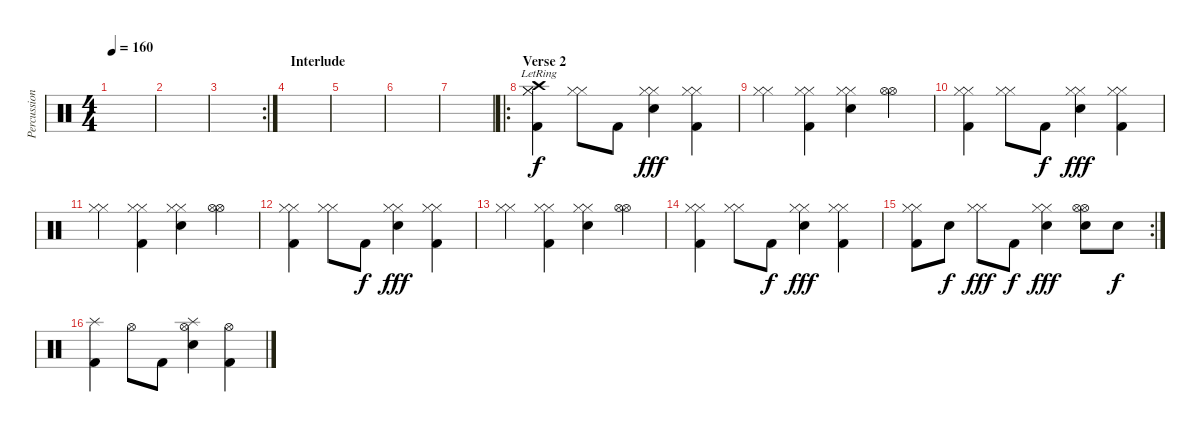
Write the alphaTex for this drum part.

\track ("Percussion" "Percussion") {instrument percussion}
\staff {score}
\articulation defaults
\ts (4 4)
\tempo 160
\clef neutral
\ks c
|
|
\rc 2
|
\section ("" "Interlude")
|
|
|
|
\ro
\section ("" "Verse 2")
("Hi-Hat (closed)" "Hi-Hat (closed)" "Crash high (hit)"{lr} "Kick (hit) 2").4 ("Hi-Hat (closed)" "Hi-Hat (closed)").8 "Kick (hit) 2".8{dy f} ("Hi-Hat (closed)" "Hi-Hat (closed)" "Electric Snare (hit)").4{dy fff} ("Hi-Hat (closed)" "Hi-Hat (closed)" "Kick (hit) 2").4 |
("Hi-Hat (closed)" "Hi-Hat (closed)").4 ("Hi-Hat (closed)" "Hi-Hat (closed)" "Kick (hit) 2").4 ("Hi-Hat (closed)" "Hi-Hat (closed)" "Electric Snare (hit)").4 ("Hi-Hat (open)" "Hi-Hat (open)").4 |
("Hi-Hat (closed)" "Hi-Hat (closed)" "Kick (hit) 2").4 ("Hi-Hat (closed)" "Hi-Hat (closed)").8 "Kick (hit) 2".8{dy f} ("Hi-Hat (closed)" "Hi-Hat (closed)" "Electric Snare (hit)").4{dy fff} ("Hi-Hat (closed)" "Hi-Hat (closed)" "Kick (hit) 2").4 |
("Hi-Hat (closed)" "Hi-Hat (closed)").4 ("Hi-Hat (closed)" "Hi-Hat (closed)" "Kick (hit) 2").4 ("Hi-Hat (closed)" "Hi-Hat (closed)" "Electric Snare (hit)").4 ("Hi-Hat (open)" "Hi-Hat (open)").4 |
("Hi-Hat (closed)" "Hi-Hat (closed)" "Kick (hit) 2").4 ("Hi-Hat (closed)" "Hi-Hat (closed)").8 "Kick (hit) 2".8{dy f} ("Hi-Hat (closed)" "Hi-Hat (closed)" "Electric Snare (hit)").4{dy fff} ("Hi-Hat (closed)" "Hi-Hat (closed)" "Kick (hit) 2").4 |
("Hi-Hat (closed)" "Hi-Hat (closed)").4 ("Hi-Hat (closed)" "Hi-Hat (closed)" "Kick (hit) 2").4 ("Hi-Hat (closed)" "Hi-Hat (closed)" "Electric Snare (hit)").4 ("Hi-Hat (open)" "Hi-Hat (open)").4 |
("Hi-Hat (closed)" "Hi-Hat (closed)" "Kick (hit) 2").4 ("Hi-Hat (closed)" "Hi-Hat (closed)").8 "Kick (hit) 2".8{dy f} ("Hi-Hat (closed)" "Hi-Hat (closed)" "Electric Snare (hit)").4{dy fff} ("Hi-Hat (closed)" "Hi-Hat (closed)" "Kick (hit) 2").4 |
\rc 2
("Hi-Hat (closed)" "Hi-Hat (closed)" "Kick (hit) 2").8 "Electric Snare (hit)".8{dy f} ("Hi-Hat (closed)" "Hi-Hat (closed)").8{dy fff} "Kick (hit) 2".8{dy f} ("Hi-Hat (closed)" "Hi-Hat (closed)" "Electric Snare (hit)").4{dy fff} ("Hi-Hat (open)" "Hi-Hat (open)" "Electric Snare (hit)").8 "Electric Snare (hit)".8{dy f} |
("Splash (hit)" "Kick (hit) 2").4 "Hi-Hat (open)".8 "Kick (hit) 2".8 ("Splash (hit)" "Hi-Hat (open)" "Electric Snare (hit)").4 ("Hi-Hat (open)" "Kick (hit) 2").4
